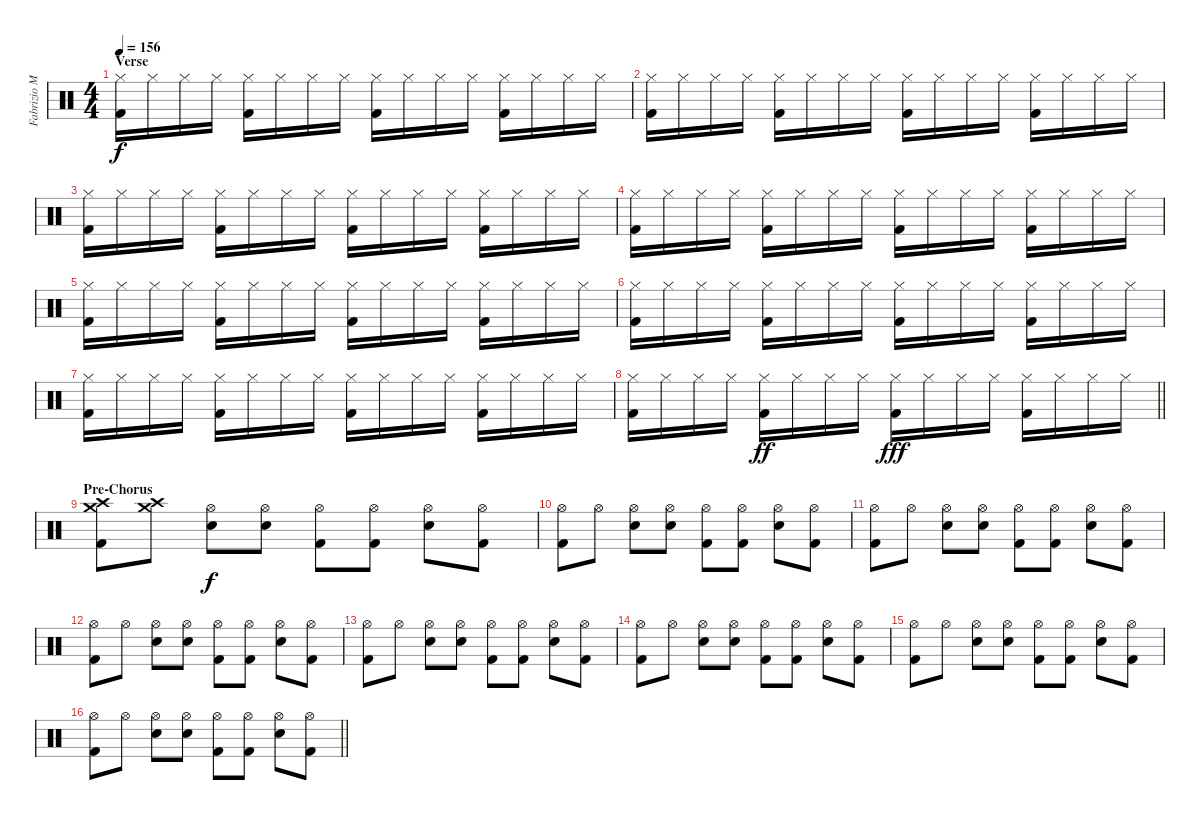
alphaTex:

\track ("Fabrizio Moretti" "Fabrizio M") {instrument percussion}
\staff {score}
\articulation defaults
\ts (4 4)
\section ("" "Verse")
\tempo 156
\clef neutral
\ks c
("Hi-Hat (closed)" "Kick (hit) 2").16{dy f} "Hi-Hat (closed)".16 "Hi-Hat (closed)".16 "Hi-Hat (closed)".16 ("Hi-Hat (closed)" "Kick (hit) 2").16 "Hi-Hat (closed)".16 "Hi-Hat (closed)".16 "Hi-Hat (closed)".16 ("Hi-Hat (closed)" "Kick (hit) 2").16 "Hi-Hat (closed)".16 "Hi-Hat (closed)".16 "Hi-Hat (closed)".16 ("Hi-Hat (closed)" "Kick (hit) 2").16 "Hi-Hat (closed)".16 "Hi-Hat (closed)".16 "Hi-Hat (closed)".16 |
("Hi-Hat (closed)" "Kick (hit) 2").16 "Hi-Hat (closed)".16 "Hi-Hat (closed)".16 "Hi-Hat (closed)".16 ("Hi-Hat (closed)" "Kick (hit) 2").16 "Hi-Hat (closed)".16 "Hi-Hat (closed)".16 "Hi-Hat (closed)".16 ("Hi-Hat (closed)" "Kick (hit) 2").16 "Hi-Hat (closed)".16 "Hi-Hat (closed)".16 "Hi-Hat (closed)".16 ("Hi-Hat (closed)" "Kick (hit) 2").16 "Hi-Hat (closed)".16 "Hi-Hat (closed)".16 "Hi-Hat (closed)".16 |
("Hi-Hat (closed)" "Kick (hit) 2").16 "Hi-Hat (closed)".16 "Hi-Hat (closed)".16 "Hi-Hat (closed)".16 ("Hi-Hat (closed)" "Kick (hit) 2").16 "Hi-Hat (closed)".16 "Hi-Hat (closed)".16 "Hi-Hat (closed)".16 ("Hi-Hat (closed)" "Kick (hit) 2").16 "Hi-Hat (closed)".16 "Hi-Hat (closed)".16 "Hi-Hat (closed)".16 ("Hi-Hat (closed)" "Kick (hit) 2").16 "Hi-Hat (closed)".16 "Hi-Hat (closed)".16 "Hi-Hat (closed)".16 |
("Hi-Hat (closed)" "Kick (hit) 2").16 "Hi-Hat (closed)".16 "Hi-Hat (closed)".16 "Hi-Hat (closed)".16 ("Hi-Hat (closed)" "Kick (hit) 2").16 "Hi-Hat (closed)".16 "Hi-Hat (closed)".16 "Hi-Hat (closed)".16 ("Hi-Hat (closed)" "Kick (hit) 2").16 "Hi-Hat (closed)".16 "Hi-Hat (closed)".16 "Hi-Hat (closed)".16 ("Hi-Hat (closed)" "Kick (hit) 2").16 "Hi-Hat (closed)".16 "Hi-Hat (closed)".16 "Hi-Hat (closed)".16 |
("Hi-Hat (closed)" "Kick (hit) 2").16 "Hi-Hat (closed)".16 "Hi-Hat (closed)".16 "Hi-Hat (closed)".16 ("Hi-Hat (closed)" "Kick (hit) 2").16 "Hi-Hat (closed)".16 "Hi-Hat (closed)".16 "Hi-Hat (closed)".16 ("Hi-Hat (closed)" "Kick (hit) 2").16 "Hi-Hat (closed)".16 "Hi-Hat (closed)".16 "Hi-Hat (closed)".16 ("Hi-Hat (closed)" "Kick (hit) 2").16 "Hi-Hat (closed)".16 "Hi-Hat (closed)".16 "Hi-Hat (closed)".16 |
("Hi-Hat (closed)" "Kick (hit) 2").16 "Hi-Hat (closed)".16 "Hi-Hat (closed)".16 "Hi-Hat (closed)".16 ("Hi-Hat (closed)" "Kick (hit) 2").16 "Hi-Hat (closed)".16 "Hi-Hat (closed)".16 "Hi-Hat (closed)".16 ("Hi-Hat (closed)" "Kick (hit) 2").16 "Hi-Hat (closed)".16 "Hi-Hat (closed)".16 "Hi-Hat (closed)".16 ("Hi-Hat (closed)" "Kick (hit) 2").16 "Hi-Hat (closed)".16 "Hi-Hat (closed)".16 "Hi-Hat (closed)".16 |
("Hi-Hat (closed)" "Kick (hit) 2").16 "Hi-Hat (closed)".16 "Hi-Hat (closed)".16 "Hi-Hat (closed)".16 ("Hi-Hat (closed)" "Kick (hit) 2").16 "Hi-Hat (closed)".16 "Hi-Hat (closed)".16 "Hi-Hat (closed)".16 ("Hi-Hat (closed)" "Kick (hit) 2").16 "Hi-Hat (closed)".16 "Hi-Hat (closed)".16 "Hi-Hat (closed)".16 ("Hi-Hat (closed)" "Kick (hit) 2").16 "Hi-Hat (closed)".16 "Hi-Hat (closed)".16 "Hi-Hat (closed)".16 |
\barLineRight lightlight
("Hi-Hat (closed)" "Kick (hit) 2").16 "Hi-Hat (closed)".16 "Hi-Hat (closed)".16 "Hi-Hat (closed)".16 ("Hi-Hat (closed)" "Kick (hit) 2").16{dy ff} "Hi-Hat (closed)".16 "Hi-Hat (closed)".16 "Hi-Hat (closed)".16 ("Hi-Hat (closed)" "Kick (hit) 2").16{dy fff} "Hi-Hat (closed)".16 "Hi-Hat (closed)".16 "Hi-Hat (closed)".16 ("Hi-Hat (closed)" "Kick (hit) 2").16 "Hi-Hat (closed)".16 "Hi-Hat (closed)".16 "Hi-Hat (closed)".16 |
\section ("" "Pre-Chorus")
("Crash high (hit)" "Crash medium (hit)" "Kick (hit) 2").8 ("Crash high (hit)" "Crash medium (hit)").8 ("Hi-Hat (open)" "Snare (hit) 2").8{dy f} ("Hi-Hat (open)" "Snare (hit) 2").8 ("Hi-Hat (open)" "Kick (hit) 2").8 ("Hi-Hat (open)" "Kick (hit) 2").8 ("Hi-Hat (open)" "Snare (hit) 2").8 ("Hi-Hat (open)" "Kick (hit) 2").8 |
("Hi-Hat (open)" "Kick (hit) 2").8 "Hi-Hat (open)".8 ("Hi-Hat (open)" "Snare (hit) 2").8 ("Hi-Hat (open)" "Snare (hit) 2").8 ("Hi-Hat (open)" "Kick (hit) 2").8 ("Hi-Hat (open)" "Kick (hit) 2").8 ("Hi-Hat (open)" "Snare (hit) 2").8 ("Hi-Hat (open)" "Kick (hit) 2").8 |
("Hi-Hat (open)" "Kick (hit) 2").8 "Hi-Hat (open)".8 ("Hi-Hat (open)" "Snare (hit) 2").8 ("Hi-Hat (open)" "Snare (hit) 2").8 ("Hi-Hat (open)" "Kick (hit) 2").8 ("Hi-Hat (open)" "Kick (hit) 2").8 ("Hi-Hat (open)" "Snare (hit) 2").8 ("Hi-Hat (open)" "Kick (hit) 2").8 |
("Hi-Hat (open)" "Kick (hit) 2").8 "Hi-Hat (open)".8 ("Hi-Hat (open)" "Snare (hit) 2").8 ("Hi-Hat (open)" "Snare (hit) 2").8 ("Hi-Hat (open)" "Kick (hit) 2").8 ("Hi-Hat (open)" "Kick (hit) 2").8 ("Hi-Hat (open)" "Snare (hit) 2").8 ("Hi-Hat (open)" "Kick (hit) 2").8 |
("Hi-Hat (open)" "Kick (hit) 2").8 "Hi-Hat (open)".8 ("Hi-Hat (open)" "Snare (hit) 2").8 ("Hi-Hat (open)" "Snare (hit) 2").8 ("Hi-Hat (open)" "Kick (hit) 2").8 ("Hi-Hat (open)" "Kick (hit) 2").8 ("Hi-Hat (open)" "Snare (hit) 2").8 ("Hi-Hat (open)" "Kick (hit) 2").8 |
("Hi-Hat (open)" "Kick (hit) 2").8 "Hi-Hat (open)".8 ("Hi-Hat (open)" "Snare (hit) 2").8 ("Hi-Hat (open)" "Snare (hit) 2").8 ("Hi-Hat (open)" "Kick (hit) 2").8 ("Hi-Hat (open)" "Kick (hit) 2").8 ("Hi-Hat (open)" "Snare (hit) 2").8 ("Hi-Hat (open)" "Kick (hit) 2").8 |
("Hi-Hat (open)" "Kick (hit) 2").8 "Hi-Hat (open)".8 ("Hi-Hat (open)" "Snare (hit) 2").8 ("Hi-Hat (open)" "Snare (hit) 2").8 ("Hi-Hat (open)" "Kick (hit) 2").8 ("Hi-Hat (open)" "Kick (hit) 2").8 ("Hi-Hat (open)" "Snare (hit) 2").8 ("Hi-Hat (open)" "Kick (hit) 2").8 |
\barLineRight lightlight
("Hi-Hat (open)" "Kick (hit) 2").8 "Hi-Hat (open)".8 ("Hi-Hat (open)" "Snare (hit) 2").8 ("Hi-Hat (open)" "Snare (hit) 2").8 ("Hi-Hat (open)" "Kick (hit) 2").8 ("Hi-Hat (open)" "Kick (hit) 2").8 ("Hi-Hat (open)" "Snare (hit) 2").8 ("Hi-Hat (open)" "Kick (hit) 2").8
